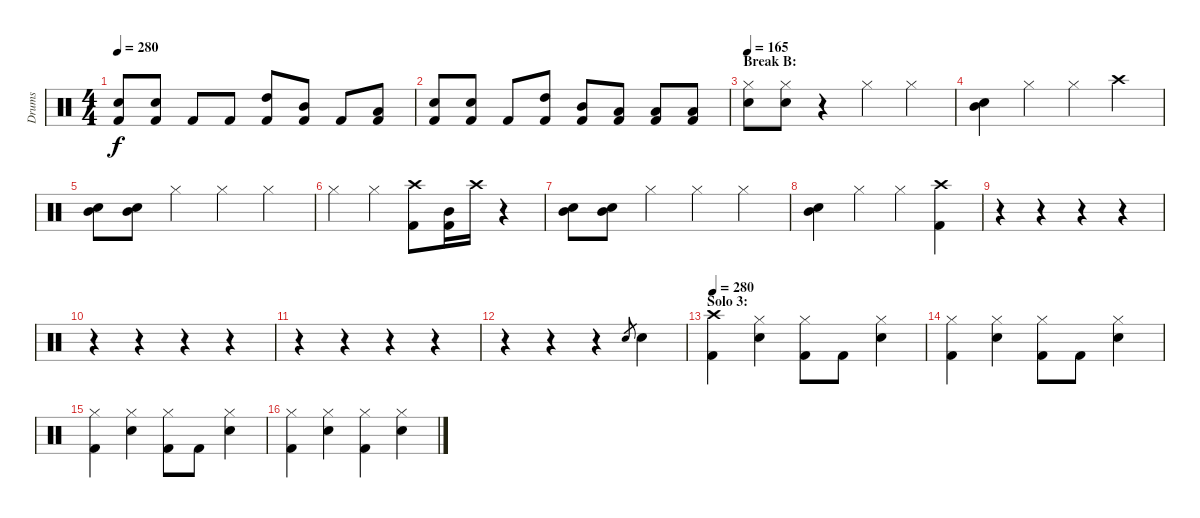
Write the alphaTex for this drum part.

\track ("Drums" "Drums") {instrument percussion}
\staff {score}
\articulation defaults
\ts (4 4)
\tempo 280
\clef neutral
\ks c
("Snare (hit) 2" "Kick (hit) 2").8{dy f} ("Snare (hit) 2" "Kick (hit) 2").8 "Kick (hit) 2".8 "Kick (hit) 2".8 ("High Tom (hit)" "Kick (hit) 2").8 ("Mid Tom (hit)" "Kick (hit) 2").8 "Kick (hit) 2".8 ("Low Tom (hit)" "Kick (hit) 2").8 |
("Snare (hit) 2" "Kick (hit) 2").8 ("Snare (hit) 2" "Kick (hit) 2").8 "Kick (hit) 2".8 ("High Tom (hit)" "Kick (hit) 2").8 ("Mid Tom (hit)" "Kick (hit) 2").8 ("Low Tom (hit)" "Kick (hit) 2").8 ("Low Tom (hit)" "Kick (hit) 2").8 ("Low Tom (hit)" "Kick (hit) 2").8 |
\section ("" "Break B:")
\tempo 165
("Hi-Hat (closed)" "Snare (hit) 2").8 ("Hi-Hat (closed)" "Snare (hit) 2").8 r.4 "Hi-Hat (closed)".4 "Hi-Hat (closed)".4 |
("Mid Tom (hit)" "Snare (hit) 2").4 "Hi-Hat (closed)".4 "Hi-Hat (closed)".4 "Crash high (hit)".4 |
("Mid Tom (hit)" "Snare (hit) 2").8 ("Mid Tom (hit)" "Snare (hit) 2").8 "Hi-Hat (closed)".4 "Hi-Hat (closed)".4 "Hi-Hat (closed)".4 |
"Hi-Hat (closed)".4 "Hi-Hat (closed)".4 ("Crash high (hit)" "Kick (hit) 2").8 ("Mid Tom (hit)" "Kick (hit) 2").16 "Crash high (hit)".16 r.4 |
("Mid Tom (hit)" "Snare (hit) 2").8 ("Mid Tom (hit)" "Snare (hit) 2").8 "Hi-Hat (closed)".4 "Hi-Hat (closed)".4 "Hi-Hat (closed)".4 |
("Mid Tom (hit)" "Snare (hit) 2").4 "Hi-Hat (closed)".4 "Hi-Hat (closed)".4 ("Crash high (hit)" "Kick (hit) 2").4 |
r.4 r.4 r.4 r.4 |
r.4 r.4 r.4 r.4 |
r.4 r.4 r.4 r.4 |
r.4 r.4 r.4 "Snare (hit) 2".8{gr} "Snare (hit) 2".4 |
\section ("" "Solo 3:")
\tempo 280
("Crash high (hit)" "Kick (hit) 2").4 ("Hi-Hat (closed)" "Snare (hit) 2").4 ("Hi-Hat (closed)" "Kick (hit) 2").8 "Kick (hit) 2".8 ("Hi-Hat (closed)" "Snare (hit) 2").4 |
("Hi-Hat (closed)" "Kick (hit) 2").4 ("Hi-Hat (closed)" "Snare (hit) 2").4 ("Hi-Hat (closed)" "Kick (hit) 2").8 "Kick (hit) 2".8 ("Hi-Hat (closed)" "Snare (hit) 2").4 |
("Hi-Hat (closed)" "Kick (hit) 2").4 ("Hi-Hat (closed)" "Snare (hit) 2").4 ("Hi-Hat (closed)" "Kick (hit) 2").8 "Kick (hit) 2".8 ("Hi-Hat (closed)" "Snare (hit) 2").4 |
("Hi-Hat (closed)" "Kick (hit) 2").4 ("Hi-Hat (closed)" "Snare (hit) 2").4 ("Hi-Hat (closed)" "Kick (hit) 2").4 ("Hi-Hat (closed)" "Snare (hit) 2").4
